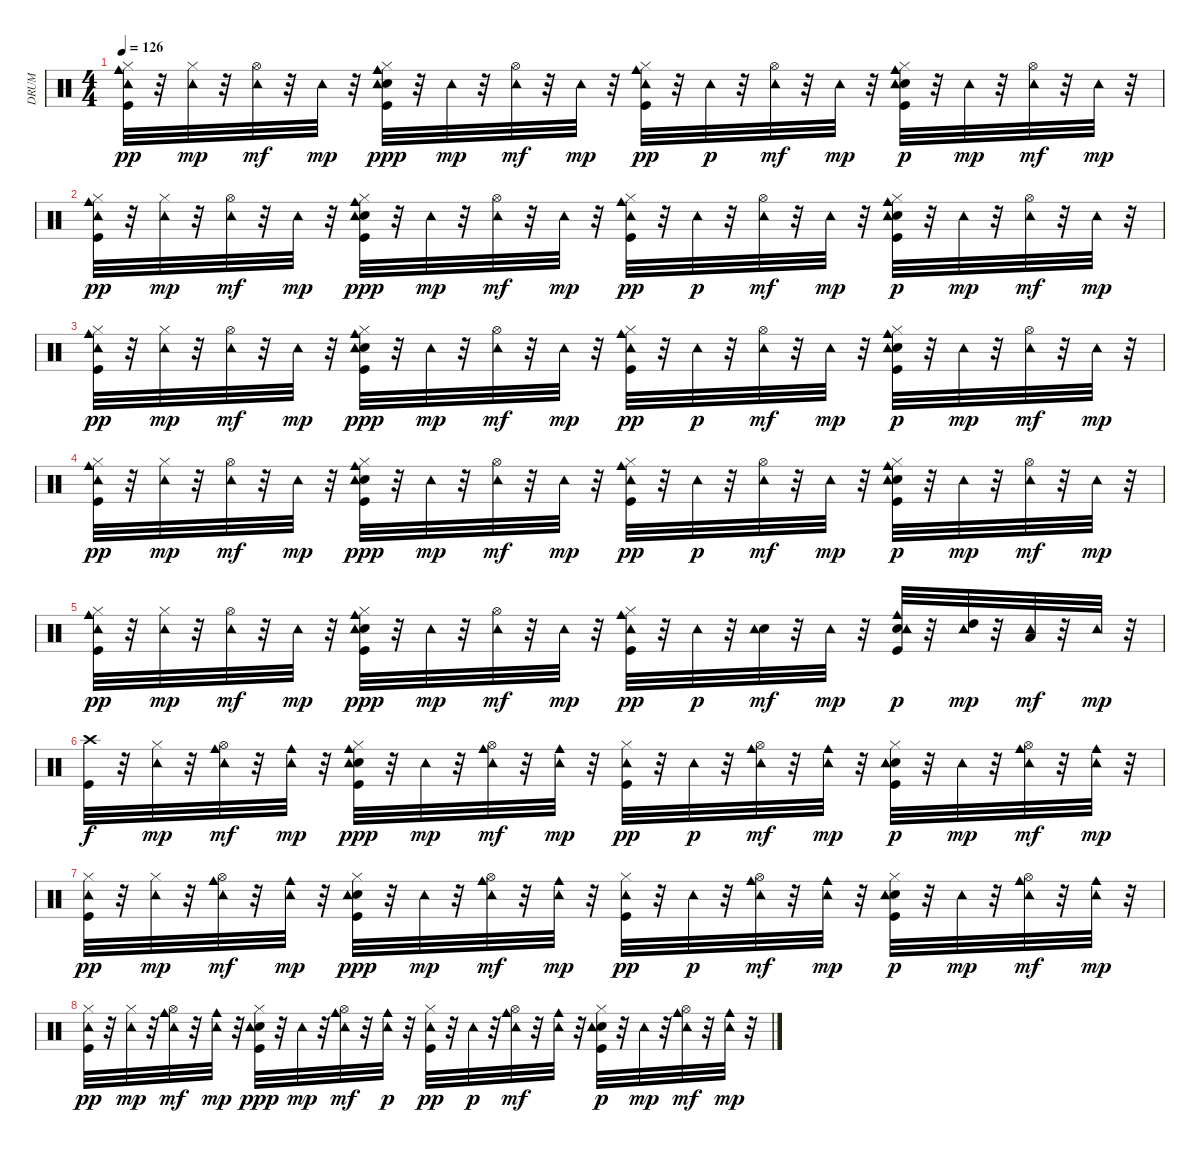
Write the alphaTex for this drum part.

\track ("DRUM" "DRUM") {instrument percussion}
\staff {score}
\articulation defaults
\ts (4 4)
\tempo 126
\clef neutral
\ks c
("Kick (hit)" "Hi-Hat (closed)" "Tambourine (hit)" "Cowbell medium (hit)").32{dy pp} r.32 ("Hi-Hat (closed)" "Tambourine (hit)").32{dy mp} r.32 ("Hi-Hat (open)" "Tambourine (hit)").32{dy mf} r.32 "Tambourine (hit)".32{dy mp} r.32 ("Kick (hit)" "Electric Snare (hit)" "Hi-Hat (closed)" "Tambourine (hit)" "Cowbell medium (hit)").32{dy ppp} r.32 "Tambourine (hit)".32{dy mp} r.32 ("Hi-Hat (open)" "Tambourine (hit)").32{dy mf} r.32 "Tambourine (hit)".32{dy mp} r.32 ("Kick (hit)" "Hi-Hat (closed)" "Tambourine (hit)" "Cowbell medium (hit)").32{dy pp} r.32 "Tambourine (hit)".32{dy p} r.32 ("Hi-Hat (open)" "Tambourine (hit)").32{dy mf} r.32 "Tambourine (hit)".32{dy mp} r.32 ("Kick (hit)" "Electric Snare (hit)" "Hi-Hat (closed)" "Tambourine (hit)" "Cowbell medium (hit)").32{dy p} r.32 "Tambourine (hit)".32{dy mp} r.32 ("Hi-Hat (open)" "Tambourine (hit)").32{dy mf} r.32 "Tambourine (hit)".32{dy mp} r.32 |
("Kick (hit)" "Hi-Hat (closed)" "Tambourine (hit)" "Cowbell medium (hit)").32{dy pp} r.32 ("Hi-Hat (closed)" "Tambourine (hit)").32{dy mp} r.32 ("Hi-Hat (open)" "Tambourine (hit)").32{dy mf} r.32 "Tambourine (hit)".32{dy mp} r.32 ("Kick (hit)" "Electric Snare (hit)" "Hi-Hat (closed)" "Tambourine (hit)" "Cowbell medium (hit)").32{dy ppp} r.32 "Tambourine (hit)".32{dy mp} r.32 ("Hi-Hat (open)" "Tambourine (hit)").32{dy mf} r.32 "Tambourine (hit)".32{dy mp} r.32 ("Kick (hit)" "Hi-Hat (closed)" "Tambourine (hit)" "Cowbell medium (hit)").32{dy pp} r.32 "Tambourine (hit)".32{dy p} r.32 ("Hi-Hat (open)" "Tambourine (hit)").32{dy mf} r.32 "Tambourine (hit)".32{dy mp} r.32 ("Kick (hit)" "Electric Snare (hit)" "Hi-Hat (closed)" "Tambourine (hit)" "Cowbell medium (hit)").32{dy p} r.32 "Tambourine (hit)".32{dy mp} r.32 ("Hi-Hat (open)" "Tambourine (hit)").32{dy mf} r.32 "Tambourine (hit)".32{dy mp} r.32 |
("Kick (hit)" "Hi-Hat (closed)" "Tambourine (hit)" "Cowbell medium (hit)").32{dy pp} r.32 ("Hi-Hat (closed)" "Tambourine (hit)").32{dy mp} r.32 ("Hi-Hat (open)" "Tambourine (hit)").32{dy mf} r.32 "Tambourine (hit)".32{dy mp} r.32 ("Kick (hit)" "Electric Snare (hit)" "Hi-Hat (closed)" "Tambourine (hit)" "Cowbell medium (hit)").32{dy ppp} r.32 "Tambourine (hit)".32{dy mp} r.32 ("Hi-Hat (open)" "Tambourine (hit)").32{dy mf} r.32 "Tambourine (hit)".32{dy mp} r.32 ("Kick (hit)" "Hi-Hat (closed)" "Tambourine (hit)" "Cowbell medium (hit)").32{dy pp} r.32 "Tambourine (hit)".32{dy p} r.32 ("Hi-Hat (open)" "Tambourine (hit)").32{dy mf} r.32 "Tambourine (hit)".32{dy mp} r.32 ("Kick (hit)" "Electric Snare (hit)" "Hi-Hat (closed)" "Tambourine (hit)" "Cowbell medium (hit)").32{dy p} r.32 "Tambourine (hit)".32{dy mp} r.32 ("Hi-Hat (open)" "Tambourine (hit)").32{dy mf} r.32 "Tambourine (hit)".32{dy mp} r.32 |
("Kick (hit)" "Hi-Hat (closed)" "Tambourine (hit)" "Cowbell medium (hit)").32{dy pp} r.32 ("Hi-Hat (closed)" "Tambourine (hit)").32{dy mp} r.32 ("Hi-Hat (open)" "Tambourine (hit)").32{dy mf} r.32 "Tambourine (hit)".32{dy mp} r.32 ("Kick (hit)" "Electric Snare (hit)" "Hi-Hat (closed)" "Tambourine (hit)" "Cowbell medium (hit)").32{dy ppp} r.32 "Tambourine (hit)".32{dy mp} r.32 ("Hi-Hat (open)" "Tambourine (hit)").32{dy mf} r.32 "Tambourine (hit)".32{dy mp} r.32 ("Kick (hit)" "Hi-Hat (closed)" "Tambourine (hit)" "Cowbell medium (hit)").32{dy pp} r.32 "Tambourine (hit)".32{dy p} r.32 ("Hi-Hat (open)" "Tambourine (hit)").32{dy mf} r.32 "Tambourine (hit)".32{dy mp} r.32 ("Kick (hit)" "Electric Snare (hit)" "Hi-Hat (closed)" "Tambourine (hit)" "Cowbell medium (hit)").32{dy p} r.32 "Tambourine (hit)".32{dy mp} r.32 ("Hi-Hat (open)" "Tambourine (hit)").32{dy mf} r.32 "Tambourine (hit)".32{dy mp} r.32 |
("Kick (hit)" "Hi-Hat (closed)" "Tambourine (hit)" "Cowbell medium (hit)").32{dy pp} r.32 ("Hi-Hat (closed)" "Tambourine (hit)").32{dy mp} r.32 ("Hi-Hat (open)" "Tambourine (hit)").32{dy mf} r.32 "Tambourine (hit)".32{dy mp} r.32 ("Kick (hit)" "Electric Snare (hit)" "Hi-Hat (closed)" "Tambourine (hit)" "Cowbell medium (hit)").32{dy ppp} r.32 "Tambourine (hit)".32{dy mp} r.32 ("Hi-Hat (open)" "Tambourine (hit)").32{dy mf} r.32 "Tambourine (hit)".32{dy mp} r.32 ("Kick (hit)" "Hi-Hat (closed)" "Tambourine (hit)" "Cowbell medium (hit)").32{dy pp} r.32 "Tambourine (hit)".32{dy p} r.32 ("Electric Snare (hit)" "Tambourine (hit)").32{dy mf} r.32 "Tambourine (hit)".32{dy mp} r.32 ("Kick (hit)" "Electric Snare (hit)" "Tambourine (hit)" "Cowbell medium (hit)").32{dy p} r.32 ("High Tom (hit)" "Tambourine (hit)").32{dy mp} r.32 ("Low Tom (hit)" "Tambourine (hit)").32{dy mf} r.32 "Tambourine (hit)".32{dy mp} r.32 |
("Kick (hit)" "Crash high (hit)").32{dy f} r.32 ("Hi-Hat (closed)" "Tambourine (hit)").32{dy mp} r.32 ("Hi-Hat (open)" "Tambourine (hit)" "Cowbell medium (hit)").32{dy mf} r.32 ("Tambourine (hit)" "Cowbell medium (hit)").32{dy mp} r.32 ("Kick (hit)" "Electric Snare (hit)" "Hi-Hat (closed)" "Tambourine (hit)" "Cowbell medium (hit)").32{dy ppp} r.32 "Tambourine (hit)".32{dy mp} r.32 ("Hi-Hat (open)" "Tambourine (hit)" "Cowbell medium (hit)").32{dy mf} r.32 ("Tambourine (hit)" "Cowbell medium (hit)").32{dy mp} r.32 ("Kick (hit)" "Hi-Hat (closed)" "Tambourine (hit)").32{dy pp} r.32 "Tambourine (hit)".32{dy p} r.32 ("Hi-Hat (open)" "Tambourine (hit)" "Cowbell medium (hit)").32{dy mf} r.32 ("Tambourine (hit)" "Cowbell medium (hit)").32{dy mp} r.32 ("Kick (hit)" "Electric Snare (hit)" "Hi-Hat (closed)" "Tambourine (hit)").32{dy p} r.32 "Tambourine (hit)".32{dy mp} r.32 ("Hi-Hat (open)" "Tambourine (hit)" "Cowbell medium (hit)").32{dy mf} r.32 ("Tambourine (hit)" "Cowbell medium (hit)").32{dy mp} r.32 |
("Kick (hit)" "Hi-Hat (closed)" "Tambourine (hit)").32{dy pp} r.32 ("Hi-Hat (closed)" "Tambourine (hit)").32{dy mp} r.32 ("Hi-Hat (open)" "Tambourine (hit)" "Cowbell medium (hit)").32{dy mf} r.32 ("Tambourine (hit)" "Cowbell medium (hit)").32{dy mp} r.32 ("Kick (hit)" "Electric Snare (hit)" "Hi-Hat (closed)" "Tambourine (hit)").32{dy ppp} r.32 "Tambourine (hit)".32{dy mp} r.32 ("Hi-Hat (open)" "Tambourine (hit)" "Cowbell medium (hit)").32{dy mf} r.32 ("Tambourine (hit)" "Cowbell medium (hit)").32{dy mp} r.32 ("Kick (hit)" "Hi-Hat (closed)" "Tambourine (hit)").32{dy pp} r.32 "Tambourine (hit)".32{dy p} r.32 ("Hi-Hat (open)" "Tambourine (hit)" "Cowbell medium (hit)").32{dy mf} r.32 ("Tambourine (hit)" "Cowbell medium (hit)").32{dy mp} r.32 ("Kick (hit)" "Electric Snare (hit)" "Hi-Hat (closed)" "Tambourine (hit)").32{dy p} r.32 "Tambourine (hit)".32{dy mp} r.32 ("Hi-Hat (open)" "Tambourine (hit)" "Cowbell medium (hit)").32{dy mf} r.32 ("Tambourine (hit)" "Cowbell medium (hit)").32{dy mp} r.32 |
("Kick (hit)" "Hi-Hat (closed)" "Tambourine (hit)").32{dy pp} r.32 ("Hi-Hat (closed)" "Tambourine (hit)").32{dy mp} r.32 ("Hi-Hat (open)" "Tambourine (hit)" "Cowbell medium (hit)").32{dy mf} r.32 ("Tambourine (hit)" "Cowbell medium (hit)").32{dy mp} r.32 ("Kick (hit)" "Electric Snare (hit)" "Hi-Hat (closed)" "Tambourine (hit)").32{dy ppp} r.32 "Tambourine (hit)".32{dy mp} r.32 ("Hi-Hat (open)" "Tambourine (hit)" "Cowbell medium (hit)").32{dy mf} r.32 ("Tambourine (hit)" "Cowbell medium (hit)").32{dy p} r.32 ("Kick (hit)" "Hi-Hat (closed)" "Tambourine (hit)").32{dy pp} r.32 "Tambourine (hit)".32{dy p} r.32 ("Hi-Hat (open)" "Tambourine (hit)" "Cowbell medium (hit)").32{dy mf} r.32 ("Tambourine (hit)" "Cowbell medium (hit)").32 r.32 ("Kick (hit)" "Electric Snare (hit)" "Hi-Hat (closed)" "Tambourine (hit)").32{dy p} r.32 "Tambourine (hit)".32{dy mp} r.32 ("Hi-Hat (open)" "Tambourine (hit)" "Cowbell medium (hit)").32{dy mf} r.32 ("Tambourine (hit)" "Cowbell medium (hit)").32{dy mp} r.32
